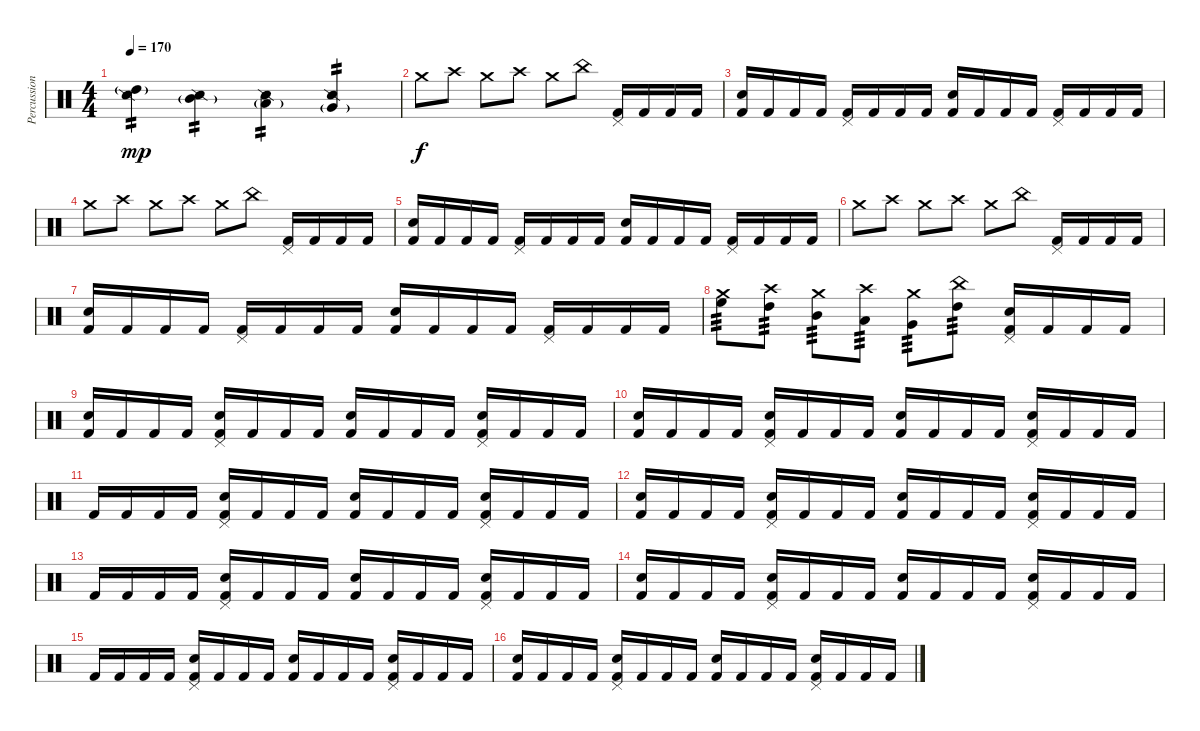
\track ("Percussions" "Percussion") {instrument percussion}
\staff {score}
\articulation defaults
\ts (4 4)
\tempo 170
\clef neutral
\ks c
("Snare (side stick) 2" "High Tom (hit)"{g}).4{tp 2 dy mp} ("Snare (side stick) 2" "Mid Tom (hit)"{g}).4{tp 2} ("Snare (side stick) 2" "Low Tom (hit)"{g}).4{tp 2} ("Snare (side stick) 2" "Very Low Tom (hit)"{g}).4{tp 2} |
"Crash medium (hit)".8{dy f} "Crash high (hit)".8 "Crash medium (hit)".8 "Crash high (hit)".8 "Crash medium (hit)".8 "China (hit)".8 ("Pedal Hi-Hat (hit)" "Kick (hit) 2").16 "Kick (hit) 2".16 "Kick (hit) 2".16 "Kick (hit) 2".16 |
("Snare (hit) 2" "Kick (hit) 2").16 "Kick (hit) 2".16 "Kick (hit) 2".16 "Kick (hit) 2".16 ("Pedal Hi-Hat (hit)" "Kick (hit) 2").16 "Kick (hit) 2".16 "Kick (hit) 2".16 "Kick (hit) 2".16 ("Snare (hit) 2" "Kick (hit) 2").16 "Kick (hit) 2".16 "Kick (hit) 2".16 "Kick (hit) 2".16 ("Pedal Hi-Hat (hit)" "Kick (hit) 2").16 "Kick (hit) 2".16 "Kick (hit) 2".16 "Kick (hit) 2".16 |
"Crash medium (hit)".8 "Crash high (hit)".8 "Crash medium (hit)".8 "Crash high (hit)".8 "Crash medium (hit)".8 "China (hit)".8 ("Pedal Hi-Hat (hit)" "Kick (hit) 2").16 "Kick (hit) 2".16 "Kick (hit) 2".16 "Kick (hit) 2".16 |
("Snare (hit) 2" "Kick (hit) 2").16 "Kick (hit) 2".16 "Kick (hit) 2".16 "Kick (hit) 2".16 ("Pedal Hi-Hat (hit)" "Kick (hit) 2").16 "Kick (hit) 2".16 "Kick (hit) 2".16 "Kick (hit) 2".16 ("Snare (hit) 2" "Kick (hit) 2").16 "Kick (hit) 2".16 "Kick (hit) 2".16 "Kick (hit) 2".16 ("Pedal Hi-Hat (hit)" "Kick (hit) 2").16 "Kick (hit) 2".16 "Kick (hit) 2".16 "Kick (hit) 2".16 |
"Crash medium (hit)".8 "Crash high (hit)".8 "Crash medium (hit)".8 "Crash high (hit)".8 "Crash medium (hit)".8 "China (hit)".8 ("Pedal Hi-Hat (hit)" "Kick (hit) 2").16 "Kick (hit) 2".16 "Kick (hit) 2".16 "Kick (hit) 2".16 |
("Snare (hit) 2" "Kick (hit) 2").16 "Kick (hit) 2".16 "Kick (hit) 2".16 "Kick (hit) 2".16 ("Pedal Hi-Hat (hit)" "Kick (hit) 2").16 "Kick (hit) 2".16 "Kick (hit) 2".16 "Kick (hit) 2".16 ("Snare (hit) 2" "Kick (hit) 2").16 "Kick (hit) 2".16 "Kick (hit) 2".16 "Kick (hit) 2".16 ("Pedal Hi-Hat (hit)" "Kick (hit) 2").16 "Kick (hit) 2".16 "Kick (hit) 2".16 "Kick (hit) 2".16 |
("High Floor Tom (hit)" "Crash medium (hit)").8{tp 3} ("High Tom (hit)" "Crash high (hit)").8{tp 3} ("Mid Tom (hit)" "Crash medium (hit)").8{tp 3} ("Low Tom (hit)" "Crash high (hit)").8{tp 3} ("Very Low Tom (hit)" "Crash medium (hit)").8{tp 3} ("High Tom (hit)" "China (hit)").8{tp 3} ("Snare (hit) 2" "Pedal Hi-Hat (hit)" "Kick (hit) 2").16 "Kick (hit) 2".16 "Kick (hit) 2".16 "Kick (hit) 2".16 |
("Snare (hit) 2" "Kick (hit) 2").16 "Kick (hit) 2".16 "Kick (hit) 2".16 "Kick (hit) 2".16 ("Snare (hit) 2" "Pedal Hi-Hat (hit)" "Kick (hit) 2").16 "Kick (hit) 2".16 "Kick (hit) 2".16 "Kick (hit) 2".16 ("Snare (hit) 2" "Kick (hit) 2").16 "Kick (hit) 2".16 "Kick (hit) 2".16 "Kick (hit) 2".16 ("Snare (hit) 2" "Pedal Hi-Hat (hit)" "Kick (hit) 2").16 "Kick (hit) 2".16 "Kick (hit) 2".16 "Kick (hit) 2".16 |
("Snare (hit) 2" "Kick (hit) 2").16 "Kick (hit) 2".16 "Kick (hit) 2".16 "Kick (hit) 2".16 ("Pedal Hi-Hat (hit)" "Snare (hit) 2" "Kick (hit) 2").16 "Kick (hit) 2".16 "Kick (hit) 2".16 "Kick (hit) 2".16 ("Snare (hit) 2" "Kick (hit) 2").16 "Kick (hit) 2".16 "Kick (hit) 2".16 "Kick (hit) 2".16 ("Pedal Hi-Hat (hit)" "Snare (hit) 2" "Kick (hit) 2").16 "Kick (hit) 2".16 "Kick (hit) 2".16 "Kick (hit) 2".16 |
"Kick (hit) 2".16 "Kick (hit) 2".16 "Kick (hit) 2".16 "Kick (hit) 2".16 ("Pedal Hi-Hat (hit)" "Snare (hit) 2" "Kick (hit) 2").16 "Kick (hit) 2".16 "Kick (hit) 2".16 "Kick (hit) 2".16 ("Snare (hit) 2" "Kick (hit) 2").16 "Kick (hit) 2".16 "Kick (hit) 2".16 "Kick (hit) 2".16 ("Pedal Hi-Hat (hit)" "Snare (hit) 2" "Kick (hit) 2").16 "Kick (hit) 2".16 "Kick (hit) 2".16 "Kick (hit) 2".16 |
("Snare (hit) 2" "Kick (hit) 2").16 "Kick (hit) 2".16 "Kick (hit) 2".16 "Kick (hit) 2".16 ("Pedal Hi-Hat (hit)" "Snare (hit) 2" "Kick (hit) 2").16 "Kick (hit) 2".16 "Kick (hit) 2".16 "Kick (hit) 2".16 ("Snare (hit) 2" "Kick (hit) 2").16 "Kick (hit) 2".16 "Kick (hit) 2".16 "Kick (hit) 2".16 ("Pedal Hi-Hat (hit)" "Snare (hit) 2" "Kick (hit) 2").16 "Kick (hit) 2".16 "Kick (hit) 2".16 "Kick (hit) 2".16 |
"Kick (hit) 2".16 "Kick (hit) 2".16 "Kick (hit) 2".16 "Kick (hit) 2".16 ("Pedal Hi-Hat (hit)" "Snare (hit) 2" "Kick (hit) 2").16 "Kick (hit) 2".16 "Kick (hit) 2".16 "Kick (hit) 2".16 ("Snare (hit) 2" "Kick (hit) 2").16 "Kick (hit) 2".16 "Kick (hit) 2".16 "Kick (hit) 2".16 ("Pedal Hi-Hat (hit)" "Snare (hit) 2" "Kick (hit) 2").16 "Kick (hit) 2".16 "Kick (hit) 2".16 "Kick (hit) 2".16 |
("Snare (hit) 2" "Kick (hit) 2").16 "Kick (hit) 2".16 "Kick (hit) 2".16 "Kick (hit) 2".16 ("Pedal Hi-Hat (hit)" "Snare (hit) 2" "Kick (hit) 2").16 "Kick (hit) 2".16 "Kick (hit) 2".16 "Kick (hit) 2".16 ("Snare (hit) 2" "Kick (hit) 2").16 "Kick (hit) 2".16 "Kick (hit) 2".16 "Kick (hit) 2".16 ("Pedal Hi-Hat (hit)" "Snare (hit) 2" "Kick (hit) 2").16 "Kick (hit) 2".16 "Kick (hit) 2".16 "Kick (hit) 2".16 |
"Kick (hit) 2".16 "Kick (hit) 2".16 "Kick (hit) 2".16 "Kick (hit) 2".16 ("Pedal Hi-Hat (hit)" "Snare (hit) 2" "Kick (hit) 2").16 "Kick (hit) 2".16 "Kick (hit) 2".16 "Kick (hit) 2".16 ("Snare (hit) 2" "Kick (hit) 2").16 "Kick (hit) 2".16 "Kick (hit) 2".16 "Kick (hit) 2".16 ("Pedal Hi-Hat (hit)" "Snare (hit) 2" "Kick (hit) 2").16 "Kick (hit) 2".16 "Kick (hit) 2".16 "Kick (hit) 2".16 |
("Snare (hit) 2" "Kick (hit) 2").16 "Kick (hit) 2".16 "Kick (hit) 2".16 "Kick (hit) 2".16 ("Pedal Hi-Hat (hit)" "Snare (hit) 2" "Kick (hit) 2").16 "Kick (hit) 2".16 "Kick (hit) 2".16 "Kick (hit) 2".16 ("Snare (hit) 2" "Kick (hit) 2").16 "Kick (hit) 2".16 "Kick (hit) 2".16 "Kick (hit) 2".16 ("Pedal Hi-Hat (hit)" "Snare (hit) 2" "Kick (hit) 2").16 "Kick (hit) 2".16 "Kick (hit) 2".16 "Kick (hit) 2".16
